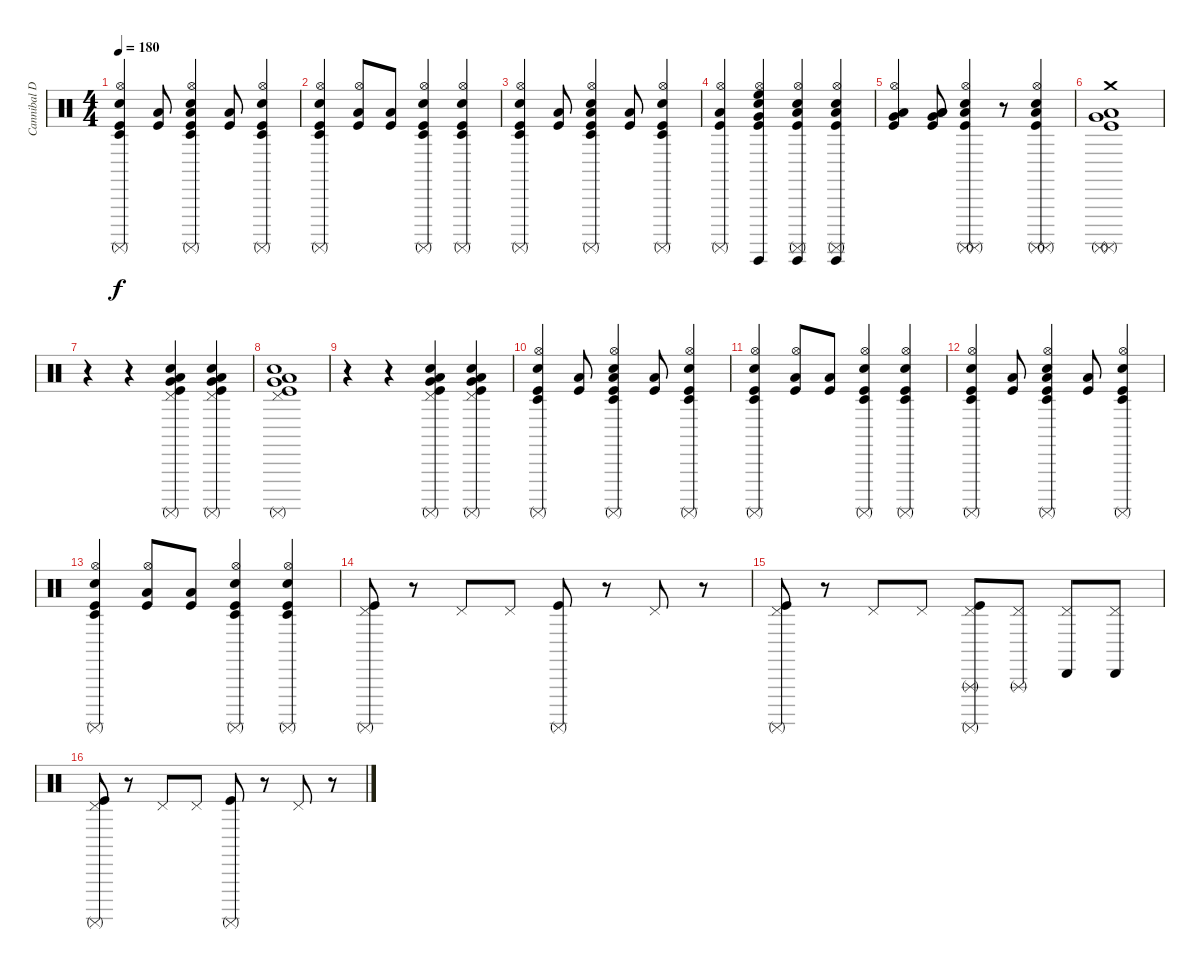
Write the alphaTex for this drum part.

\track ("Cannibal Drums :)" "Cannibal D") {instrument percussion}
\staff {score}
\articulation defaults
\ts (4 4)
\tempo 180
\clef neutral
\ks c
("Kick (hit)" "Hi-Hat (open)" "Surdo (mute)" "Timbale low (hit)" "Snare (hit) 2").4{dy f} ("Kick (hit)" "Low Floor Tom (hit)").8 ("Kick (hit)" "Hi-Hat (open)" "Timbale low (hit)" "Low Tom (hit)" "Snare (hit) 2" "Surdo (mute)").4 ("Kick (hit)" "Low Floor Tom (hit)").8 ("Kick (hit)" "Hi-Hat (open)" "Timbale low (hit)" "Surdo (mute)" "Snare (hit) 2").4 |
("Kick (hit)" "Hi-Hat (open)" "Timbale low (hit)" "Surdo (mute)" "Snare (hit) 2").4 ("Kick (hit)" "Hi-Hat (open)" "Low Floor Tom (hit)").8 ("Kick (hit)" "Low Floor Tom (hit)").8 ("Kick (hit)" "Hi-Hat (open)" "Timbale low (hit)" "Surdo (mute)" "Snare (hit) 2").4 ("Kick (hit)" "Hi-Hat (open)" "Timbale low (hit)" "Surdo (mute)" "Snare (hit) 2").4 |
("Kick (hit)" "Hi-Hat (open)" "Surdo (mute)" "Timbale low (hit)" "Snare (hit) 2").4 ("Kick (hit)" "Low Floor Tom (hit)").8 ("Kick (hit)" "Hi-Hat (open)" "Timbale low (hit)" "Low Tom (hit)" "Snare (hit) 2" "Surdo (mute)").4 ("Kick (hit)" "Low Floor Tom (hit)").8 ("Kick (hit)" "Hi-Hat (open)" "Timbale low (hit)" "Surdo (mute)" "Snare (hit) 2").4 |
("Kick (hit)" "Low Tom (hit)" "Surdo (mute)" "Hi-Hat (open)").4 ("Kick (hit)" "Hand Clap (hit)" "Guiro (hit)" "High Floor Tom (hit)" "Very Low Tom (hit)" "Hi-Hat (open)").4 ("Kick (hit)" "Hand Clap (hit)" "Guiro (hit)" "Low Tom (hit)" "Surdo (mute)" "Hi-Hat (open)").4 ("Kick (hit)" "Hand Clap (hit)" "Guiro (hit)" "Low Tom (hit)" "Surdo (mute)" "Hi-Hat (open)").4 |
("Kick (hit)" "Low Tom (hit)" "Very Low Tom (hit)" "Hi-Hat (open)").4 ("Kick (hit)" "Low Tom (hit)" "Very Low Tom (hit)" "Low Floor Tom (hit)").8 ("Kick (hit)" "Snare (hit) 2" "Surdo (mute)" "Low Tom (hit)" "Surdo (mute)" "Hi-Hat (open)").4 r.8 ("Kick (hit)" "Snare (hit) 2" "Surdo (mute)" "Low Tom (hit)" "Surdo (mute)" "Hi-Hat (open)").4 |
("Kick (hit)" "Surdo (mute)" "Very Low Tom (hit)" "Low Tom (hit)" "Surdo (mute)" "Crash medium (hit)").1 |
r.4 r.4 ("Kick (hit)" "Surdo (mute)" "Very Low Tom (hit)" "Low Tom (hit)" "Pedal Hi-Hat (hit)" "Snare (hit) 2").4 ("Kick (hit)" "Surdo (mute)" "Very Low Tom (hit)" "Low Tom (hit)" "Snare (hit) 2" "Pedal Hi-Hat (hit)").4 |
("Kick (hit)" "Surdo (mute)" "Very Low Tom (hit)" "Low Tom (hit)" "Pedal Hi-Hat (hit)" "Snare (hit) 2").1 |
r.4 r.4 ("Kick (hit)" "Surdo (mute)" "Very Low Tom (hit)" "Low Tom (hit)" "Pedal Hi-Hat (hit)" "Snare (hit) 2").4 ("Kick (hit)" "Surdo (mute)" "Very Low Tom (hit)" "Low Tom (hit)" "Snare (hit) 2" "Pedal Hi-Hat (hit)").4 |
("Kick (hit)" "Hi-Hat (open)" "Surdo (mute)" "Timbale low (hit)" "Snare (hit) 2").4 ("Kick (hit)" "Low Floor Tom (hit)").8 ("Kick (hit)" "Hi-Hat (open)" "Timbale low (hit)" "Low Tom (hit)" "Snare (hit) 2" "Surdo (mute)").4 ("Kick (hit)" "Low Floor Tom (hit)").8 ("Kick (hit)" "Hi-Hat (open)" "Timbale low (hit)" "Surdo (mute)" "Snare (hit) 2").4 |
("Kick (hit)" "Hi-Hat (open)" "Timbale low (hit)" "Surdo (mute)" "Snare (hit) 2").4 ("Kick (hit)" "Hi-Hat (open)" "Low Floor Tom (hit)").8 ("Kick (hit)" "Low Floor Tom (hit)").8 ("Kick (hit)" "Hi-Hat (open)" "Timbale low (hit)" "Surdo (mute)" "Snare (hit) 2").4 ("Kick (hit)" "Hi-Hat (open)" "Timbale low (hit)" "Surdo (mute)" "Snare (hit) 2").4 |
("Kick (hit)" "Hi-Hat (open)" "Surdo (mute)" "Timbale low (hit)" "Snare (hit) 2").4 ("Kick (hit)" "Low Floor Tom (hit)").8 ("Kick (hit)" "Hi-Hat (open)" "Timbale low (hit)" "Low Tom (hit)" "Snare (hit) 2" "Surdo (mute)").4 ("Kick (hit)" "Low Floor Tom (hit)").8 ("Kick (hit)" "Hi-Hat (open)" "Timbale low (hit)" "Surdo (mute)" "Snare (hit) 2").4 |
("Kick (hit)" "Hi-Hat (open)" "Timbale low (hit)" "Surdo (mute)" "Snare (hit) 2").4 ("Kick (hit)" "Hi-Hat (open)" "Low Floor Tom (hit)").8 ("Kick (hit)" "Low Floor Tom (hit)").8 ("Kick (hit)" "Hi-Hat (open)" "Timbale low (hit)" "Surdo (mute)" "Snare (hit) 2").4 ("Kick (hit)" "Hi-Hat (open)" "Timbale low (hit)" "Surdo (mute)" "Snare (hit) 2").4 |
("Kick (hit)" "Surdo (mute)" "Pedal Hi-Hat (hit)").8 r.8 "Pedal Hi-Hat (hit)".8 "Pedal Hi-Hat (hit)".8 ("Kick (hit)" "Surdo (mute)").8 r.8 "Pedal Hi-Hat (hit)".8 r.8 |
("Kick (hit)" "Surdo (mute)" "Pedal Hi-Hat (hit)").8 r.8 "Pedal Hi-Hat (hit)".8 "Pedal Hi-Hat (hit)".8 ("Kick (hit)" "Surdo (mute)" "Pedal Hi-Hat (hit)" "Triangle (rnute)").8 ("Pedal Hi-Hat (hit)" "Triangle (rnute)").8 ("Pedal Hi-Hat (hit)" "Cabasa (hit)").8 ("Pedal Hi-Hat (hit)" "Cabasa (hit)").8 |
("Kick (hit)" "Surdo (mute)" "Pedal Hi-Hat (hit)").8 r.8 "Pedal Hi-Hat (hit)".8 "Pedal Hi-Hat (hit)".8 ("Kick (hit)" "Surdo (mute)").8 r.8 "Pedal Hi-Hat (hit)".8 r.8
